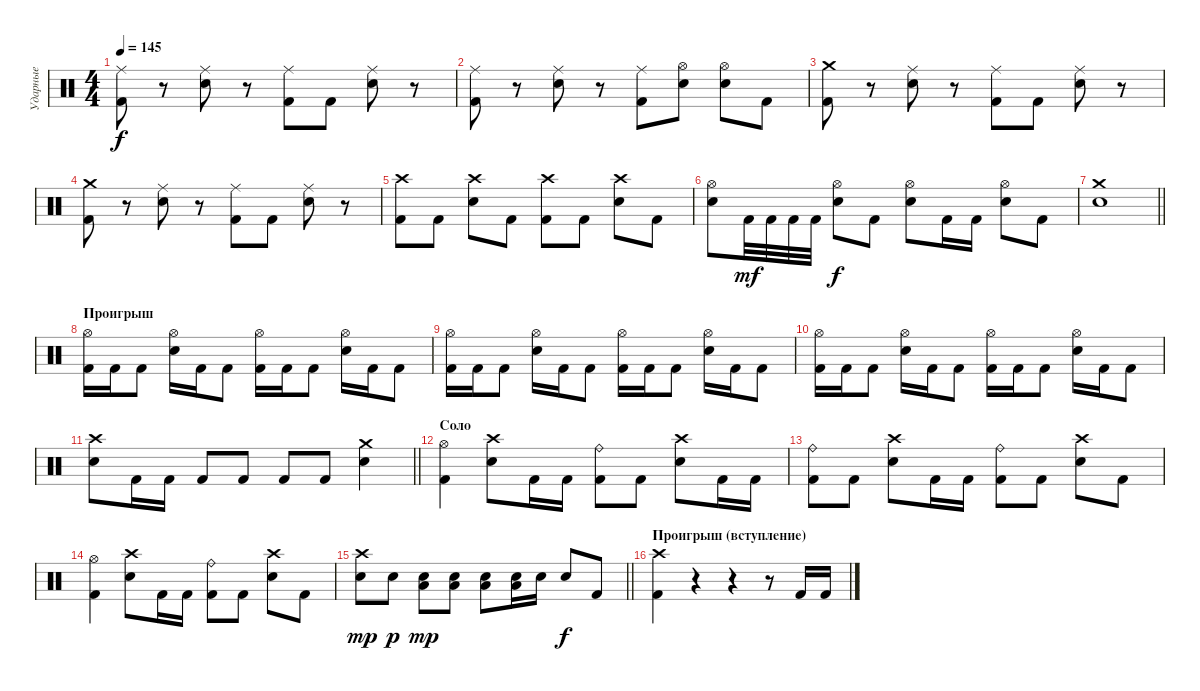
\track ("Ударные" "Ударные") {instrument percussion bank 127}
\staff
\articulation defaults
\ts (4 4)
\tempo 145
\clef neutral
\ks c
("Ride (middle)" "Kick (hit) 2").8{dy f} r.8 ("Ride (middle)" "Snare (hit) 2").8 r.8 ("Ride (middle)" "Kick (hit) 2").8 "Kick (hit) 2".8 ("Ride (middle)" "Snare (hit) 2").8 r.8 |
("Ride (middle)" "Kick (hit) 2").8 r.8 ("Ride (middle)" "Snare (hit) 2").8 r.8 ("Ride (middle)" "Kick (hit) 2").8 ("Hi-Hat (open)" "Snare (hit) 2").8 ("Hi-Hat (open)" "Snare (hit) 2").8 "Kick (hit) 2".8 |
("Crash medium (hit)" "Kick (hit) 2").8 r.8 ("Ride (middle)" "Snare (hit) 2").8 r.8 ("Ride (middle)" "Kick (hit) 2").8 "Kick (hit) 2".8 ("Ride (middle)" "Snare (hit) 2").8 r.8 |
("Crash medium (hit)" "Kick (hit) 2").8 r.8 ("Ride (middle)" "Snare (hit) 2").8 r.8 ("Ride (middle)" "Kick (hit) 2").8 "Kick (hit) 2".8 ("Ride (middle)" "Snare (hit) 2").8 r.8 |
("Kick (hit) 2" "Crash high (hit)").8 "Kick (hit) 2".8 ("Snare (hit) 2" "Crash high (hit)").8 "Kick (hit) 2".8 ("Kick (hit) 2" "Crash high (hit)").8 "Kick (hit) 2".8 ("Snare (hit) 2" "Crash high (hit)").8 "Kick (hit) 2".8 |
("Snare (hit) 2" "Hi-Hat (open)").8 "Kick (hit) 2".32{dy mf} "Kick (hit) 2".32 "Kick (hit) 2".32 "Kick (hit) 2".32 ("Snare (hit) 2" "Hi-Hat (open)").8{dy f} "Kick (hit) 2".8 ("Snare (hit) 2" "Hi-Hat (open)").8 "Kick (hit) 2".16 "Kick (hit) 2".16 ("Snare (hit) 2" "Hi-Hat (open)").8 "Kick (hit) 2".8 |
\barLineRight lightlight
("Snare (hit) 2" "Crash medium (hit)").1 |
\section ("" "Проигрыш")
("Kick (hit) 2" "Hi-Hat (open)").16 "Kick (hit) 2".16 "Kick (hit) 2".8 ("Snare (hit) 2" "Hi-Hat (open)").16 "Kick (hit) 2".16 "Kick (hit) 2".8 ("Kick (hit) 2" "Hi-Hat (open)").16 "Kick (hit) 2".16 "Kick (hit) 2".8 ("Snare (hit) 2" "Hi-Hat (open)").16 "Kick (hit) 2".16 "Kick (hit) 2".8 |
("Kick (hit) 2" "Hi-Hat (open)").16 "Kick (hit) 2".16 "Kick (hit) 2".8 ("Snare (hit) 2" "Hi-Hat (open)").16 "Kick (hit) 2".16 "Kick (hit) 2".8 ("Kick (hit) 2" "Hi-Hat (open)").16 "Kick (hit) 2".16 "Kick (hit) 2".8 ("Snare (hit) 2" "Hi-Hat (open)").16 "Kick (hit) 2".16 "Kick (hit) 2".8 |
("Kick (hit) 2" "Hi-Hat (open)").16 "Kick (hit) 2".16 "Kick (hit) 2".8 ("Snare (hit) 2" "Hi-Hat (open)").16 "Kick (hit) 2".16 "Kick (hit) 2".8 ("Kick (hit) 2" "Hi-Hat (open)").16 "Kick (hit) 2".16 "Kick (hit) 2".8 ("Snare (hit) 2" "Hi-Hat (open)").16 "Kick (hit) 2".16 "Kick (hit) 2".8 |
\barLineRight lightlight
("Crash high (hit)" "Snare (hit) 2").8 "Kick (hit) 2".16 "Kick (hit) 2".16 "Kick (hit) 2".8 "Kick (hit) 2".8 "Kick (hit) 2".8 "Kick (hit) 2".8 ("Snare (hit) 2" "Crash medium (hit)").4 |
\section ("" "Соло")
("Kick (hit) 2" "Hi-Hat (open)").4 ("Snare (hit) 2" "Crash high (hit)").8 "Kick (hit) 2".16 "Kick (hit) 2".16 ("Kick (hit) 2" "Ride (bell)").8 "Kick (hit) 2".8 ("Crash high (hit)" "Snare (hit) 2").8 "Kick (hit) 2".16 "Kick (hit) 2".16 |
("Kick (hit) 2" "Ride (bell)").8 "Kick (hit) 2".8 ("Snare (hit) 2" "Crash high (hit)").8 "Kick (hit) 2".16 "Kick (hit) 2".16 ("Kick (hit) 2" "Ride (bell)").8 "Kick (hit) 2".8 ("Crash high (hit)" "Snare (hit) 2").8 "Kick (hit) 2".8 |
("Kick (hit) 2" "Hi-Hat (open)").4 ("Snare (hit) 2" "Crash high (hit)").8 "Kick (hit) 2".16 "Kick (hit) 2".16 ("Kick (hit) 2" "Ride (bell)").8 "Kick (hit) 2".8 ("Crash high (hit)" "Snare (hit) 2").8 "Kick (hit) 2".8 |
\barLineRight lightlight
("Crash high (hit)" "Snare (hit) 2").8{dy mp} "Snare (hit) 2".8{dy p} ("Low Tom (hit)" "Snare (hit) 2").8{dy mp} ("Low Tom (hit)" "Snare (hit) 2").8 ("Low Tom (hit)" "Snare (hit) 2").8 ("Low Tom (hit)" "Snare (hit) 2").16 "Snare (hit) 2".16 "Snare (hit) 2".8{dy f} "Kick (hit) 2".8 |
\section ("" "Проигрыш (вступление)")
("Kick (hit) 2" "Crash high (hit)").4 r.4 r.4 r.8 "Kick (hit) 2".16 "Kick (hit) 2".16
